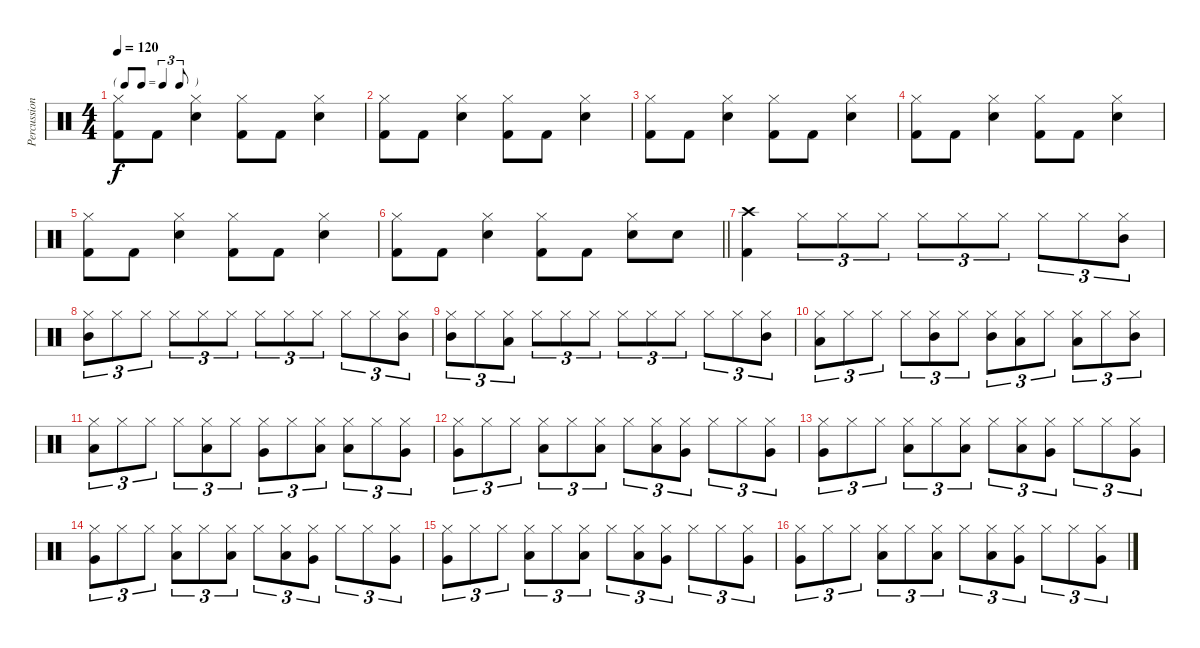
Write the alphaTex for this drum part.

\track ("Percussion" "Percussion") {instrument percussion}
\staff {score}
\articulation defaults
\ts (4 4)
\tf triplet8th
\tempo 120
\clef neutral
\ks c
("Hi-Hat (closed)" "Kick (hit) 2").8{dy f} "Kick (hit) 2".8 ("Hi-Hat (closed)" "Electric Snare (hit)").4 ("Hi-Hat (closed)" "Kick (hit) 2").8 "Kick (hit) 2".8 ("Hi-Hat (closed)" "Electric Snare (hit)").4 |
("Hi-Hat (closed)" "Kick (hit) 2").8 "Kick (hit) 2".8 ("Hi-Hat (closed)" "Electric Snare (hit)").4 ("Hi-Hat (closed)" "Kick (hit) 2").8 "Kick (hit) 2".8 ("Hi-Hat (closed)" "Electric Snare (hit)").4 |
("Hi-Hat (closed)" "Kick (hit) 2").8 "Kick (hit) 2".8 ("Hi-Hat (closed)" "Electric Snare (hit)").4 ("Hi-Hat (closed)" "Kick (hit) 2").8 "Kick (hit) 2".8 ("Hi-Hat (closed)" "Electric Snare (hit)").4 |
("Hi-Hat (closed)" "Kick (hit) 2").8 "Kick (hit) 2".8 ("Hi-Hat (closed)" "Electric Snare (hit)").4 ("Hi-Hat (closed)" "Kick (hit) 2").8 "Kick (hit) 2".8 ("Hi-Hat (closed)" "Electric Snare (hit)").4 |
("Hi-Hat (closed)" "Kick (hit) 2").8 "Kick (hit) 2".8 ("Hi-Hat (closed)" "Electric Snare (hit)").4 ("Hi-Hat (closed)" "Kick (hit) 2").8 "Kick (hit) 2".8 ("Hi-Hat (closed)" "Electric Snare (hit)").4 |
\barLineRight lightlight
("Hi-Hat (closed)" "Kick (hit) 2").8 "Kick (hit) 2".8 ("Hi-Hat (closed)" "Electric Snare (hit)").4 ("Hi-Hat (closed)" "Kick (hit) 2").8 "Kick (hit) 2".8 ("Hi-Hat (closed)" "Electric Snare (hit)").8 "Electric Snare (hit)".8 |
("Crash high (hit)" "Kick (hit) 2").4 "Hi-Hat (closed)".8{tu (3 2)} "Hi-Hat (closed)".8{tu (3 2)} "Hi-Hat (closed)".8{tu (3 2)} "Hi-Hat (closed)".8{tu (3 2)} "Hi-Hat (closed)".8{tu (3 2)} "Hi-Hat (closed)".8{tu (3 2)} "Hi-Hat (closed)".8{tu (3 2)} "Hi-Hat (closed)".8{tu (3 2)} ("Hi-Hat (closed)" "Mid Tom (hit)").8{tu (3 2)} |
("Hi-Hat (closed)" "Mid Tom (hit)").8{tu (3 2)} "Hi-Hat (closed)".8{tu (3 2)} "Hi-Hat (closed)".8{tu (3 2)} "Hi-Hat (closed)".8{tu (3 2)} "Hi-Hat (closed)".8{tu (3 2)} "Hi-Hat (closed)".8{tu (3 2)} "Hi-Hat (closed)".8{tu (3 2)} "Hi-Hat (closed)".8{tu (3 2)} "Hi-Hat (closed)".8{tu (3 2)} "Hi-Hat (closed)".8{tu (3 2)} "Hi-Hat (closed)".8{tu (3 2)} ("Hi-Hat (closed)" "Mid Tom (hit)").8{tu (3 2)} |
("Hi-Hat (closed)" "Mid Tom (hit)").8{tu (3 2)} "Hi-Hat (closed)".8{tu (3 2)} ("Hi-Hat (closed)" "Low Tom (hit)").8{tu (3 2)} "Hi-Hat (closed)".8{tu (3 2)} "Hi-Hat (closed)".8{tu (3 2)} "Hi-Hat (closed)".8{tu (3 2)} "Hi-Hat (closed)".8{tu (3 2)} "Hi-Hat (closed)".8{tu (3 2)} "Hi-Hat (closed)".8{tu (3 2)} "Hi-Hat (closed)".8{tu (3 2)} "Hi-Hat (closed)".8{tu (3 2)} ("Hi-Hat (closed)" "Mid Tom (hit)").8{tu (3 2)} |
("Hi-Hat (closed)" "Low Tom (hit)").8{tu (3 2)} "Hi-Hat (closed)".8{tu (3 2)} "Hi-Hat (closed)".8{tu (3 2)} "Hi-Hat (closed)".8{tu (3 2)} ("Hi-Hat (closed)" "Mid Tom (hit)").8{tu (3 2)} "Hi-Hat (closed)".8{tu (3 2)} ("Hi-Hat (closed)" "Mid Tom (hit)").8{tu (3 2)} ("Hi-Hat (closed)" "Low Tom (hit)").8{tu (3 2)} "Hi-Hat (closed)".8{tu (3 2)} ("Hi-Hat (closed)" "Low Tom (hit)").8{tu (3 2)} "Hi-Hat (closed)".8{tu (3 2)} ("Hi-Hat (closed)" "Mid Tom (hit)").8{tu (3 2)} |
("Hi-Hat (closed)" "Low Tom (hit)").8{tu (3 2)} "Hi-Hat (closed)".8{tu (3 2)} "Hi-Hat (closed)".8{tu (3 2)} "Hi-Hat (closed)".8{tu (3 2)} ("Hi-Hat (closed)" "Low Tom (hit)").8{tu (3 2)} "Hi-Hat (closed)".8{tu (3 2)} ("Hi-Hat (closed)" "Very Low Tom (hit)").8{tu (3 2)} "Hi-Hat (closed)".8{tu (3 2)} ("Hi-Hat (closed)" "Low Tom (hit)").8{tu (3 2)} ("Hi-Hat (closed)" "Low Tom (hit)").8{tu (3 2)} "Hi-Hat (closed)".8{tu (3 2)} ("Hi-Hat (closed)" "Very Low Tom (hit)").8{tu (3 2)} |
("Hi-Hat (closed)" "Very Low Tom (hit)").8{tu (3 2)} "Hi-Hat (closed)".8{tu (3 2)} "Hi-Hat (closed)".8{tu (3 2)} ("Hi-Hat (closed)" "Low Tom (hit)").8{tu (3 2)} "Hi-Hat (closed)".8{tu (3 2)} ("Hi-Hat (closed)" "Low Tom (hit)").8{tu (3 2)} "Hi-Hat (closed)".8{tu (3 2)} ("Hi-Hat (closed)" "Low Tom (hit)").8{tu (3 2)} ("Hi-Hat (closed)" "Very Low Tom (hit)").8{tu (3 2)} "Hi-Hat (closed)".8{tu (3 2)} "Hi-Hat (closed)".8{tu (3 2)} ("Hi-Hat (closed)" "Very Low Tom (hit)").8{tu (3 2)} |
("Hi-Hat (closed)" "Very Low Tom (hit)").8{tu (3 2)} "Hi-Hat (closed)".8{tu (3 2)} "Hi-Hat (closed)".8{tu (3 2)} ("Hi-Hat (closed)" "Low Tom (hit)").8{tu (3 2)} "Hi-Hat (closed)".8{tu (3 2)} ("Hi-Hat (closed)" "Low Tom (hit)").8{tu (3 2)} "Hi-Hat (closed)".8{tu (3 2)} ("Hi-Hat (closed)" "Low Tom (hit)").8{tu (3 2)} ("Hi-Hat (closed)" "Very Low Tom (hit)").8{tu (3 2)} "Hi-Hat (closed)".8{tu (3 2)} "Hi-Hat (closed)".8{tu (3 2)} ("Hi-Hat (closed)" "Very Low Tom (hit)").8{tu (3 2)} |
("Hi-Hat (closed)" "Very Low Tom (hit)").8{tu (3 2)} "Hi-Hat (closed)".8{tu (3 2)} "Hi-Hat (closed)".8{tu (3 2)} ("Hi-Hat (closed)" "Low Tom (hit)").8{tu (3 2)} "Hi-Hat (closed)".8{tu (3 2)} ("Hi-Hat (closed)" "Low Tom (hit)").8{tu (3 2)} "Hi-Hat (closed)".8{tu (3 2)} ("Hi-Hat (closed)" "Low Tom (hit)").8{tu (3 2)} ("Hi-Hat (closed)" "Very Low Tom (hit)").8{tu (3 2)} "Hi-Hat (closed)".8{tu (3 2)} "Hi-Hat (closed)".8{tu (3 2)} ("Hi-Hat (closed)" "Very Low Tom (hit)").8{tu (3 2)} |
("Hi-Hat (closed)" "Very Low Tom (hit)").8{tu (3 2)} "Hi-Hat (closed)".8{tu (3 2)} "Hi-Hat (closed)".8{tu (3 2)} ("Hi-Hat (closed)" "Low Tom (hit)").8{tu (3 2)} "Hi-Hat (closed)".8{tu (3 2)} ("Hi-Hat (closed)" "Low Tom (hit)").8{tu (3 2)} "Hi-Hat (closed)".8{tu (3 2)} ("Hi-Hat (closed)" "Low Tom (hit)").8{tu (3 2)} ("Hi-Hat (closed)" "Very Low Tom (hit)").8{tu (3 2)} "Hi-Hat (closed)".8{tu (3 2)} "Hi-Hat (closed)".8{tu (3 2)} ("Hi-Hat (closed)" "Very Low Tom (hit)").8{tu (3 2)} |
("Hi-Hat (closed)" "Very Low Tom (hit)").8{tu (3 2)} "Hi-Hat (closed)".8{tu (3 2)} "Hi-Hat (closed)".8{tu (3 2)} ("Hi-Hat (closed)" "Low Tom (hit)").8{tu (3 2)} "Hi-Hat (closed)".8{tu (3 2)} ("Hi-Hat (closed)" "Low Tom (hit)").8{tu (3 2)} "Hi-Hat (closed)".8{tu (3 2)} ("Hi-Hat (closed)" "Low Tom (hit)").8{tu (3 2)} ("Hi-Hat (closed)" "Very Low Tom (hit)").8{tu (3 2)} "Hi-Hat (closed)".8{tu (3 2)} "Hi-Hat (closed)".8{tu (3 2)} ("Hi-Hat (closed)" "Very Low Tom (hit)").8{tu (3 2)}
